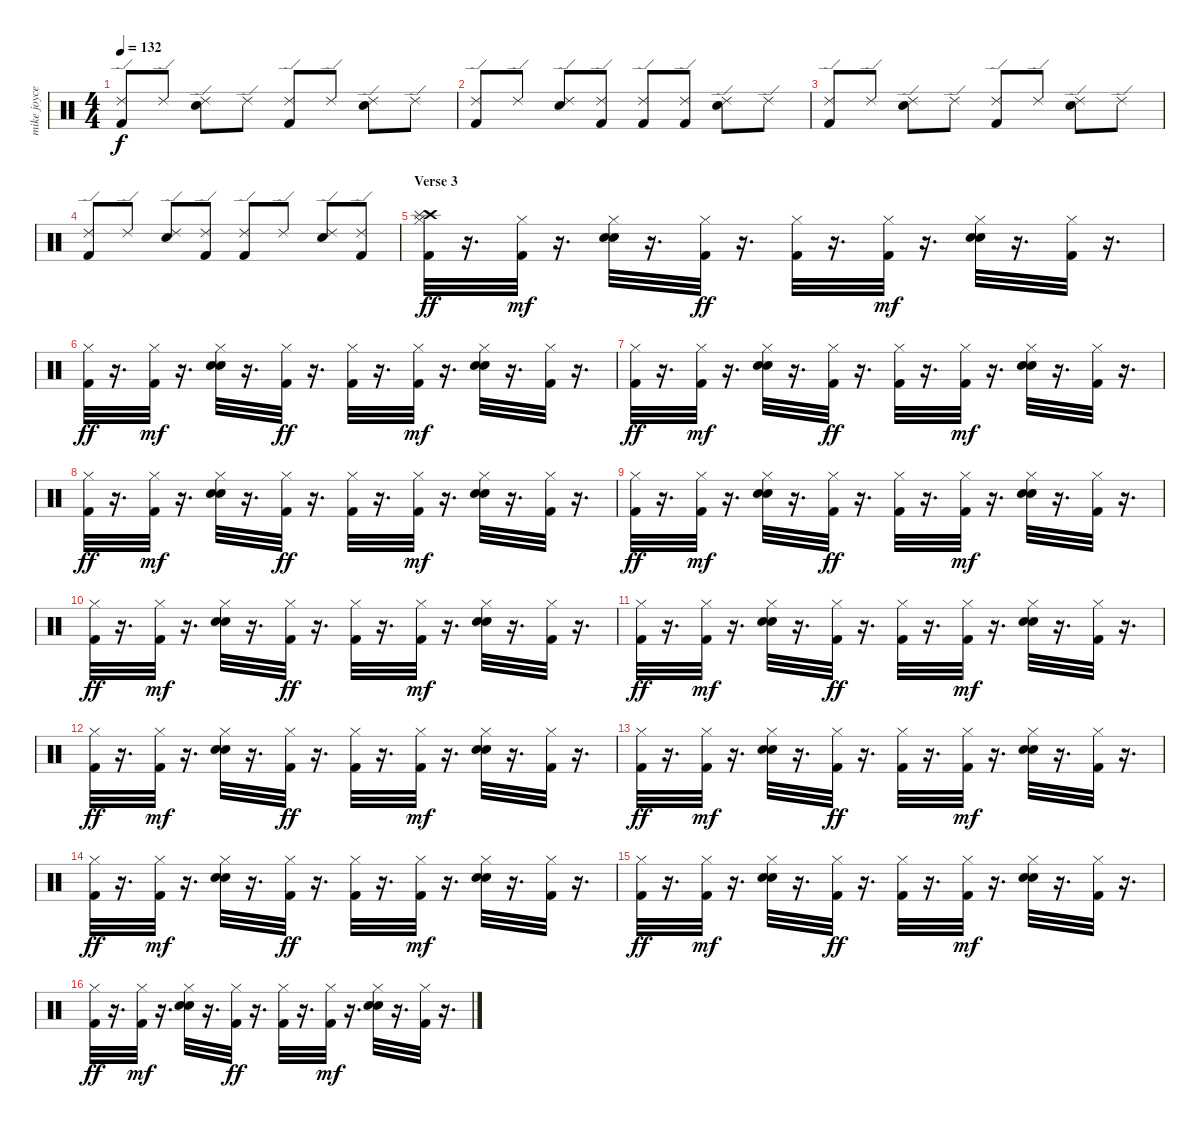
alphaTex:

\track ("mike joyce" "mike joyce") {instrument percussion}
\staff {score}
\articulation defaults
\ts (4 4)
\tempo 132
\clef neutral
\ks c
("Ride (edge) 2" "Kick (hit) 2").8{dy f} "Ride (edge) 2".8 ("Ride (edge) 2" "Snare (hit) 2").8 "Ride (edge) 2".8 ("Ride (edge) 2" "Kick (hit) 2").8 "Ride (edge) 2".8 ("Ride (edge) 2" "Snare (hit) 2").8 "Ride (edge) 2".8 |
("Ride (edge) 2" "Kick (hit) 2").8 "Ride (edge) 2".8 ("Ride (edge) 2" "Snare (hit) 2").8 ("Ride (edge) 2" "Kick (hit) 2").8 ("Ride (edge) 2" "Kick (hit) 2").8 ("Ride (edge) 2" "Kick (hit) 2").8 ("Ride (edge) 2" "Snare (hit) 2").8 "Ride (edge) 2".8 |
("Ride (edge) 2" "Kick (hit) 2").8 "Ride (edge) 2".8 ("Ride (edge) 2" "Snare (hit) 2").8 "Ride (edge) 2".8 ("Ride (edge) 2" "Kick (hit) 2").8 "Ride (edge) 2".8 ("Ride (edge) 2" "Snare (hit) 2").8 "Ride (edge) 2".8 |
("Ride (edge) 2" "Kick (hit) 2").8 "Ride (edge) 2".8 ("Ride (edge) 2" "Snare (hit) 2").8 ("Ride (edge) 2" "Kick (hit) 2").8 ("Ride (edge) 2" "Kick (hit) 2").8 "Ride (edge) 2".8 ("Ride (edge) 2" "Snare (hit) 2").8 ("Ride (edge) 2" "Kick (hit) 2").8 |
\section ("" "Verse 3")
("Crash high (hit)" "Hi-Hat (closed)" "Kick (hit) 2" "Splash (hit)").32{dy ff} r.16{d} ("Kick (hit) 2" "Hi-Hat (closed)").32{dy mf} r.16{d} ("Snare (hit) 2" "Electric Snare (hit)" "Hi-Hat (closed)").32 r.16{d} ("Hi-Hat (closed)" "Kick (hit) 2").32{dy ff} r.16{d} ("Hi-Hat (closed)" "Kick (hit) 2").32 r.16{d} ("Kick (hit) 2" "Hi-Hat (closed)").32{dy mf} r.16{d} ("Snare (hit) 2" "Electric Snare (hit)" "Hi-Hat (closed)").32 r.16{d} ("Kick (hit) 2" "Hi-Hat (closed)").32 r.16{d} |
("Hi-Hat (closed)" "Kick (hit) 2").32{dy ff} r.16{d} ("Kick (hit) 2" "Hi-Hat (closed)").32{dy mf} r.16{d} ("Snare (hit) 2" "Electric Snare (hit)" "Hi-Hat (closed)").32 r.16{d} ("Hi-Hat (closed)" "Kick (hit) 2").32{dy ff} r.16{d} ("Hi-Hat (closed)" "Kick (hit) 2").32 r.16{d} ("Kick (hit) 2" "Hi-Hat (closed)").32{dy mf} r.16{d} ("Snare (hit) 2" "Electric Snare (hit)" "Hi-Hat (closed)").32 r.16{d} ("Kick (hit) 2" "Hi-Hat (closed)").32 r.16{d} |
("Hi-Hat (closed)" "Kick (hit) 2").32{dy ff} r.16{d} ("Kick (hit) 2" "Hi-Hat (closed)").32{dy mf} r.16{d} ("Snare (hit) 2" "Electric Snare (hit)" "Hi-Hat (closed)").32 r.16{d} ("Hi-Hat (closed)" "Kick (hit) 2").32{dy ff} r.16{d} ("Hi-Hat (closed)" "Kick (hit) 2").32 r.16{d} ("Kick (hit) 2" "Hi-Hat (closed)").32{dy mf} r.16{d} ("Snare (hit) 2" "Electric Snare (hit)" "Hi-Hat (closed)").32 r.16{d} ("Kick (hit) 2" "Hi-Hat (closed)").32 r.16{d} |
("Hi-Hat (closed)" "Kick (hit) 2").32{dy ff} r.16{d} ("Kick (hit) 2" "Hi-Hat (closed)").32{dy mf} r.16{d} ("Snare (hit) 2" "Electric Snare (hit)" "Hi-Hat (closed)").32 r.16{d} ("Hi-Hat (closed)" "Kick (hit) 2").32{dy ff} r.16{d} ("Hi-Hat (closed)" "Kick (hit) 2").32 r.16{d} ("Kick (hit) 2" "Hi-Hat (closed)").32{dy mf} r.16{d} ("Snare (hit) 2" "Electric Snare (hit)" "Hi-Hat (closed)").32 r.16{d} ("Kick (hit) 2" "Hi-Hat (closed)").32 r.16{d} |
("Hi-Hat (closed)" "Kick (hit) 2").32{dy ff} r.16{d} ("Kick (hit) 2" "Hi-Hat (closed)").32{dy mf} r.16{d} ("Snare (hit) 2" "Electric Snare (hit)" "Hi-Hat (closed)").32 r.16{d} ("Hi-Hat (closed)" "Kick (hit) 2").32{dy ff} r.16{d} ("Hi-Hat (closed)" "Kick (hit) 2").32 r.16{d} ("Kick (hit) 2" "Hi-Hat (closed)").32{dy mf} r.16{d} ("Snare (hit) 2" "Electric Snare (hit)" "Hi-Hat (closed)").32 r.16{d} ("Kick (hit) 2" "Hi-Hat (closed)").32 r.16{d} |
("Hi-Hat (closed)" "Kick (hit) 2").32{dy ff} r.16{d} ("Kick (hit) 2" "Hi-Hat (closed)").32{dy mf} r.16{d} ("Snare (hit) 2" "Electric Snare (hit)" "Hi-Hat (closed)").32 r.16{d} ("Hi-Hat (closed)" "Kick (hit) 2").32{dy ff} r.16{d} ("Hi-Hat (closed)" "Kick (hit) 2").32 r.16{d} ("Kick (hit) 2" "Hi-Hat (closed)").32{dy mf} r.16{d} ("Snare (hit) 2" "Electric Snare (hit)" "Hi-Hat (closed)").32 r.16{d} ("Kick (hit) 2" "Hi-Hat (closed)").32 r.16{d} |
("Hi-Hat (closed)" "Kick (hit) 2").32{dy ff} r.16{d} ("Kick (hit) 2" "Hi-Hat (closed)").32{dy mf} r.16{d} ("Snare (hit) 2" "Electric Snare (hit)" "Hi-Hat (closed)").32 r.16{d} ("Hi-Hat (closed)" "Kick (hit) 2").32{dy ff} r.16{d} ("Hi-Hat (closed)" "Kick (hit) 2").32 r.16{d} ("Kick (hit) 2" "Hi-Hat (closed)").32{dy mf} r.16{d} ("Snare (hit) 2" "Electric Snare (hit)" "Hi-Hat (closed)").32 r.16{d} ("Kick (hit) 2" "Hi-Hat (closed)").32 r.16{d} |
("Hi-Hat (closed)" "Kick (hit) 2").32{dy ff} r.16{d} ("Kick (hit) 2" "Hi-Hat (closed)").32{dy mf} r.16{d} ("Snare (hit) 2" "Electric Snare (hit)" "Hi-Hat (closed)").32 r.16{d} ("Hi-Hat (closed)" "Kick (hit) 2").32{dy ff} r.16{d} ("Hi-Hat (closed)" "Kick (hit) 2").32 r.16{d} ("Kick (hit) 2" "Hi-Hat (closed)").32{dy mf} r.16{d} ("Snare (hit) 2" "Electric Snare (hit)" "Hi-Hat (closed)").32 r.16{d} ("Kick (hit) 2" "Hi-Hat (closed)").32 r.16{d} |
("Hi-Hat (closed)" "Kick (hit) 2").32{dy ff} r.16{d} ("Kick (hit) 2" "Hi-Hat (closed)").32{dy mf} r.16{d} ("Snare (hit) 2" "Electric Snare (hit)" "Hi-Hat (closed)").32 r.16{d} ("Hi-Hat (closed)" "Kick (hit) 2").32{dy ff} r.16{d} ("Hi-Hat (closed)" "Kick (hit) 2").32 r.16{d} ("Kick (hit) 2" "Hi-Hat (closed)").32{dy mf} r.16{d} ("Snare (hit) 2" "Electric Snare (hit)" "Hi-Hat (closed)").32 r.16{d} ("Kick (hit) 2" "Hi-Hat (closed)").32 r.16{d} |
("Hi-Hat (closed)" "Kick (hit) 2").32{dy ff} r.16{d} ("Kick (hit) 2" "Hi-Hat (closed)").32{dy mf} r.16{d} ("Snare (hit) 2" "Electric Snare (hit)" "Hi-Hat (closed)").32 r.16{d} ("Hi-Hat (closed)" "Kick (hit) 2").32{dy ff} r.16{d} ("Hi-Hat (closed)" "Kick (hit) 2").32 r.16{d} ("Kick (hit) 2" "Hi-Hat (closed)").32{dy mf} r.16{d} ("Snare (hit) 2" "Electric Snare (hit)" "Hi-Hat (closed)").32 r.16{d} ("Kick (hit) 2" "Hi-Hat (closed)").32 r.16{d} |
("Hi-Hat (closed)" "Kick (hit) 2").32{dy ff} r.16{d} ("Kick (hit) 2" "Hi-Hat (closed)").32{dy mf} r.16{d} ("Snare (hit) 2" "Electric Snare (hit)" "Hi-Hat (closed)").32 r.16{d} ("Hi-Hat (closed)" "Kick (hit) 2").32{dy ff} r.16{d} ("Hi-Hat (closed)" "Kick (hit) 2").32 r.16{d} ("Kick (hit) 2" "Hi-Hat (closed)").32{dy mf} r.16{d} ("Snare (hit) 2" "Electric Snare (hit)" "Hi-Hat (closed)").32 r.16{d} ("Kick (hit) 2" "Hi-Hat (closed)").32 r.16{d} |
("Hi-Hat (closed)" "Kick (hit) 2").32{dy ff} r.16{d} ("Kick (hit) 2" "Hi-Hat (closed)").32{dy mf} r.16{d} ("Snare (hit) 2" "Electric Snare (hit)" "Hi-Hat (closed)").32 r.16{d} ("Hi-Hat (closed)" "Kick (hit) 2").32{dy ff} r.16{d} ("Hi-Hat (closed)" "Kick (hit) 2").32 r.16{d} ("Kick (hit) 2" "Hi-Hat (closed)").32{dy mf} r.16{d} ("Snare (hit) 2" "Electric Snare (hit)" "Hi-Hat (closed)").32 r.16{d} ("Kick (hit) 2" "Hi-Hat (closed)").32 r.16{d}
